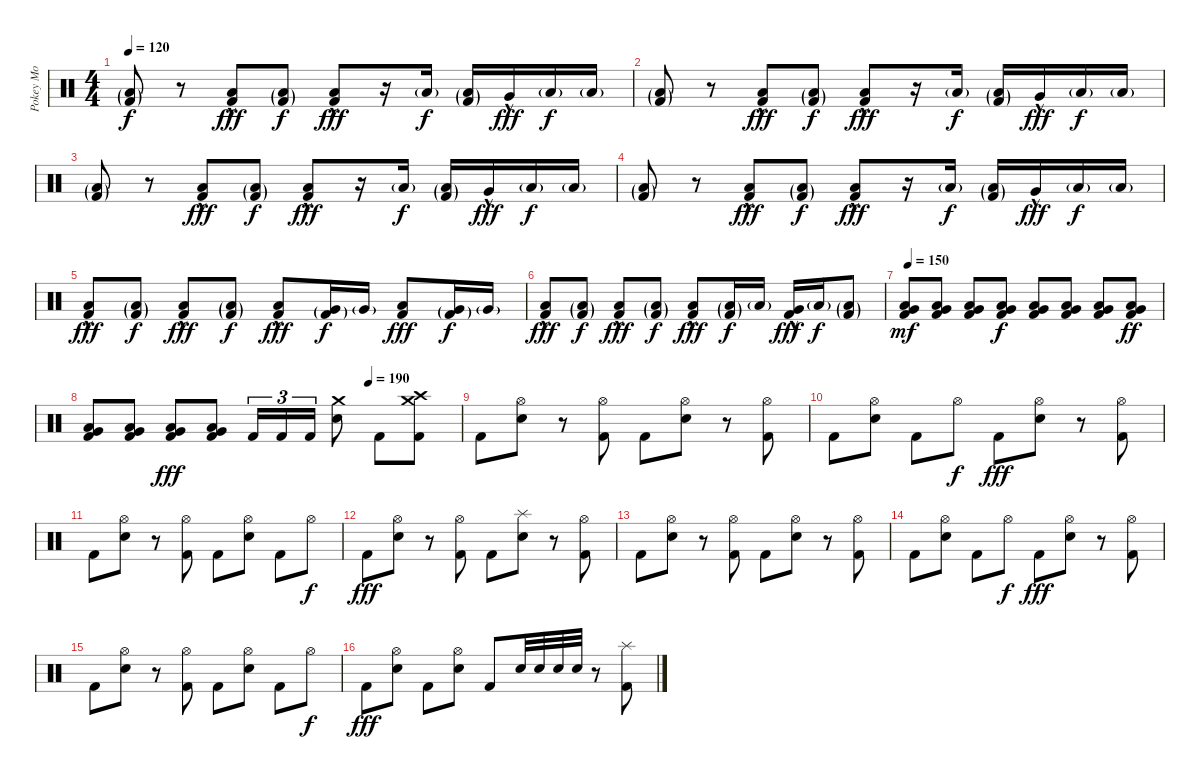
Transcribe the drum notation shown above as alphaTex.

\track ("Pokey Mo" "Pokey Mo") {instrument percussion}
\staff {score}
\articulation defaults
\ts (4 4)
\tempo 120
\clef neutral
\ks c
("Low Floor Tom (hit)"{g} "Kick (hit) 2"{g}).8{dy f} r.8 ("Low Floor Tom (hit)"{hac} "Kick (hit) 2").8{dy fff} ("Low Floor Tom (hit)"{g} "Kick (hit) 2"{g}).8{dy f} ("Low Floor Tom (hit)"{hac} "Kick (hit) 2").8{dy fff} r.16 "Low Floor Tom (hit)"{g}.16{dy f} ("Low Floor Tom (hit)"{g} "Kick (hit) 2"{g}).16 "Very Low Tom (hit)"{hac}.16{dy fff} "Low Floor Tom (hit)"{g}.16{dy f} "Low Floor Tom (hit)"{g}.16 |
("Low Floor Tom (hit)"{g} "Kick (hit) 2"{g}).8 r.8 ("Low Floor Tom (hit)"{hac} "Kick (hit) 2").8{dy fff} ("Low Floor Tom (hit)"{g} "Kick (hit) 2"{g}).8{dy f} ("Low Floor Tom (hit)"{hac} "Kick (hit) 2").8{dy fff} r.16 "Low Floor Tom (hit)"{g}.16{dy f} ("Low Floor Tom (hit)"{g} "Kick (hit) 2"{g}).16 "Very Low Tom (hit)"{hac}.16{dy fff} "Low Floor Tom (hit)"{g}.16{dy f} "Low Floor Tom (hit)"{g}.16 |
("Low Floor Tom (hit)"{g} "Kick (hit) 2"{g}).8 r.8 ("Low Floor Tom (hit)"{hac} "Kick (hit) 2").8{dy fff} ("Low Floor Tom (hit)"{g} "Kick (hit) 2"{g}).8{dy f} ("Low Floor Tom (hit)"{hac} "Kick (hit) 2").8{dy fff} r.16 "Low Floor Tom (hit)"{g}.16{dy f} ("Low Floor Tom (hit)"{g} "Kick (hit) 2"{g}).16 "Very Low Tom (hit)"{hac}.16{dy fff} "Low Floor Tom (hit)"{g}.16{dy f} "Low Floor Tom (hit)"{g}.16 |
("Low Floor Tom (hit)"{g} "Kick (hit) 2"{g}).8 r.8 ("Low Floor Tom (hit)"{hac} "Kick (hit) 2").8{dy fff} ("Low Floor Tom (hit)"{g} "Kick (hit) 2"{g}).8{dy f} ("Low Floor Tom (hit)"{hac} "Kick (hit) 2").8{dy fff} r.16 "Low Floor Tom (hit)"{g}.16{dy f} ("Low Floor Tom (hit)"{g} "Kick (hit) 2"{g}).16 "Very Low Tom (hit)"{hac}.16{dy fff} "Low Floor Tom (hit)"{g}.16{dy f} "Low Floor Tom (hit)"{g}.16 |
("Low Floor Tom (hit)"{hac} "Kick (hit) 2").8{dy fff} ("Low Floor Tom (hit)"{g} "Kick (hit) 2"{g}).8{dy f} ("Low Floor Tom (hit)"{hac} "Kick (hit) 2").8{dy fff} ("Low Floor Tom (hit)"{g} "Kick (hit) 2"{g}).8{dy f} ("Low Floor Tom (hit)"{hac} "Kick (hit) 2").8{dy fff} ("Very Low Tom (hit)"{g} "Kick (hit) 2"{g}).16{dy f} "Very Low Tom (hit)"{g}.16 ("Low Floor Tom (hit)" "Kick (hit) 2").8{dy fff} ("Very Low Tom (hit)"{g} "Kick (hit) 2"{g}).16{dy f} "Very Low Tom (hit)"{g}.16 |
("Low Floor Tom (hit)"{hac} "Kick (hit) 2").8{dy fff} ("Low Floor Tom (hit)"{g} "Kick (hit) 2"{g}).8{dy f} ("Low Floor Tom (hit)"{hac} "Kick (hit) 2").8{dy fff} ("Low Floor Tom (hit)"{g} "Kick (hit) 2"{g}).8{dy f} ("Low Floor Tom (hit)"{hac} "Kick (hit) 2").8{dy fff} ("Low Floor Tom (hit)"{g} "Kick (hit) 2"{g}).16{dy f} "Low Floor Tom (hit)"{g}.16 ("Very Low Tom (hit)"{hac} "Kick (hit) 2").16{dy fff} "Low Floor Tom (hit)"{g}.16{dy f} ("Low Floor Tom (hit)"{g} "Kick (hit) 2"{g}).8 |
\tempo 150
("Very Low Tom (hit)" "Low Floor Tom (hit)" "Kick (hit) 2").8{dy mf} ("Very Low Tom (hit)" "Low Floor Tom (hit)" "Kick (hit) 2").8 ("Very Low Tom (hit)" "Low Floor Tom (hit)" "Kick (hit) 2").8 ("Very Low Tom (hit)" "Low Floor Tom (hit)" "Kick (hit) 2").8{dy f} ("Very Low Tom (hit)" "Low Floor Tom (hit)" "Kick (hit) 2").8 ("Very Low Tom (hit)" "Low Floor Tom (hit)" "Kick (hit) 2").8 ("Very Low Tom (hit)" "Low Floor Tom (hit)" "Kick (hit) 2").8 ("Very Low Tom (hit)" "Low Floor Tom (hit)" "Kick (hit) 2").8{dy ff} |
\tempo (190 0.75)
("Very Low Tom (hit)" "Low Floor Tom (hit)" "Kick (hit) 2").8 ("Very Low Tom (hit)" "Low Floor Tom (hit)" "Kick (hit) 2").8 ("Very Low Tom (hit)" "Low Floor Tom (hit)" "Kick (hit) 2").8{dy fff} ("Very Low Tom (hit)" "Low Floor Tom (hit)" "Kick (hit) 2").8 "Kick (hit) 2".16{tu (3 2)} "Kick (hit) 2".16{tu (3 2)} "Kick (hit) 2".16{tu (3 2)} ("Crash medium (hit)" "Electric Snare (hit)").8 "Kick (hit) 2".8 ("Crash medium (hit)" "Crash high (hit)" "Kick (hit) 2").8 |
"Kick (hit) 2".8 ("Hi-Hat (open)" "Electric Snare (hit)").8 r.8 ("Hi-Hat (open)" "Kick (hit) 2").8 "Kick (hit) 2".8 ("Hi-Hat (open)" "Electric Snare (hit)").8 r.8 ("Hi-Hat (open)" "Kick (hit) 2").8 |
"Kick (hit) 2".8 ("Hi-Hat (open)" "Electric Snare (hit)").8 "Kick (hit) 2".8 "Hi-Hat (open)".8{dy f} "Kick (hit) 2".8{dy fff} ("Hi-Hat (open)" "Electric Snare (hit)").8 r.8 ("Hi-Hat (open)" "Kick (hit) 2").8 |
"Kick (hit) 2".8 ("Hi-Hat (open)" "Electric Snare (hit)").8 r.8 ("Hi-Hat (open)" "Kick (hit) 2").8 "Kick (hit) 2".8 ("Hi-Hat (open)" "Electric Snare (hit)").8 "Kick (hit) 2".8 "Hi-Hat (open)".8{dy f} |
"Kick (hit) 2".8{dy fff} ("Hi-Hat (open)" "Electric Snare (hit)").8 r.8 ("Hi-Hat (open)" "Kick (hit) 2").8 "Kick (hit) 2".8 ("Splash (hit)" "Electric Snare (hit)").8 r.8 ("Hi-Hat (open)" "Kick (hit) 2").8 |
"Kick (hit) 2".8 ("Hi-Hat (open)" "Electric Snare (hit)").8 r.8 ("Hi-Hat (open)" "Kick (hit) 2").8 "Kick (hit) 2".8 ("Hi-Hat (open)" "Electric Snare (hit)").8 r.8 ("Hi-Hat (open)" "Kick (hit) 2").8 |
"Kick (hit) 2".8 ("Hi-Hat (open)" "Electric Snare (hit)").8 "Kick (hit) 2".8 "Hi-Hat (open)".8{dy f} "Kick (hit) 2".8{dy fff} ("Hi-Hat (open)" "Electric Snare (hit)").8 r.8 ("Hi-Hat (open)" "Kick (hit) 2").8 |
"Kick (hit) 2".8 ("Hi-Hat (open)" "Electric Snare (hit)").8 r.8 ("Hi-Hat (open)" "Kick (hit) 2").8 "Kick (hit) 2".8 ("Hi-Hat (open)" "Electric Snare (hit)").8 "Kick (hit) 2".8 "Hi-Hat (open)".8{dy f} |
"Kick (hit) 2".8{dy fff} ("Hi-Hat (open)" "Electric Snare (hit)").8 "Kick (hit) 2".8 ("Hi-Hat (open)" "Electric Snare (hit)").8 "Kick (hit) 2".8 "Electric Snare (hit)".32 "Electric Snare (hit)".32 "Electric Snare (hit)".32 "Electric Snare (hit)".32 r.8 ("Splash (hit)" "Kick (hit) 2").8
